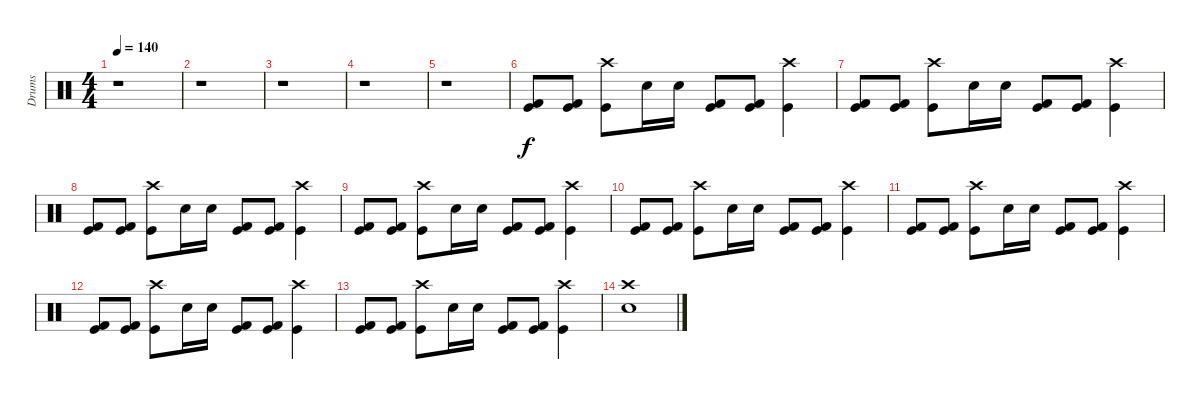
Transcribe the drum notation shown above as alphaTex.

\track ("Drums" "Drums") {instrument percussion}
\staff {score}
\articulation defaults
\ts (4 4)
\tempo 140
\clef neutral
\ks c
r.1{dy f} |
r.1 |
r.1 |
r.1 |
r.1 |
("Kick (hit) 2" "Kick (hit)").8 ("Kick (hit) 2" "Kick (hit)").8 ("Crash high (hit)" "Kick (hit)").8 "Snare (hit) 2".16 "Snare (hit) 2".16 ("Kick (hit) 2" "Kick (hit)").8 ("Kick (hit) 2" "Kick (hit)").8 ("Crash high (hit)" "Kick (hit)").4 |
("Kick (hit) 2" "Kick (hit)").8 ("Kick (hit) 2" "Kick (hit)").8 ("Crash high (hit)" "Kick (hit)").8 "Snare (hit) 2".16 "Snare (hit) 2".16 ("Kick (hit) 2" "Kick (hit)").8 ("Kick (hit) 2" "Kick (hit)").8 ("Crash high (hit)" "Kick (hit)").4 |
("Kick (hit) 2" "Kick (hit)").8 ("Kick (hit) 2" "Kick (hit)").8 ("Crash high (hit)" "Kick (hit)").8 "Snare (hit) 2".16 "Snare (hit) 2".16 ("Kick (hit) 2" "Kick (hit)").8 ("Kick (hit) 2" "Kick (hit)").8 ("Crash high (hit)" "Kick (hit)").4 |
("Kick (hit) 2" "Kick (hit)").8 ("Kick (hit) 2" "Kick (hit)").8 ("Crash high (hit)" "Kick (hit)").8 "Snare (hit) 2".16 "Snare (hit) 2".16 ("Kick (hit) 2" "Kick (hit)").8 ("Kick (hit) 2" "Kick (hit)").8 ("Crash high (hit)" "Kick (hit)").4 |
("Kick (hit) 2" "Kick (hit)").8 ("Kick (hit) 2" "Kick (hit)").8 ("Crash high (hit)" "Kick (hit)").8 "Snare (hit) 2".16 "Snare (hit) 2".16 ("Kick (hit) 2" "Kick (hit)").8 ("Kick (hit) 2" "Kick (hit)").8 ("Crash high (hit)" "Kick (hit)").4 |
("Kick (hit) 2" "Kick (hit)").8 ("Kick (hit) 2" "Kick (hit)").8 ("Crash high (hit)" "Kick (hit)").8 "Snare (hit) 2".16 "Snare (hit) 2".16 ("Kick (hit) 2" "Kick (hit)").8 ("Kick (hit) 2" "Kick (hit)").8 ("Crash high (hit)" "Kick (hit)").4 |
("Kick (hit) 2" "Kick (hit)").8 ("Kick (hit) 2" "Kick (hit)").8 ("Crash high (hit)" "Kick (hit)").8 "Snare (hit) 2".16 "Snare (hit) 2".16 ("Kick (hit) 2" "Kick (hit)").8 ("Kick (hit) 2" "Kick (hit)").8 ("Crash high (hit)" "Kick (hit)").4 |
("Kick (hit) 2" "Kick (hit)").8 ("Kick (hit) 2" "Kick (hit)").8 ("Crash high (hit)" "Kick (hit)").8 "Snare (hit) 2".16 "Snare (hit) 2".16 ("Kick (hit) 2" "Kick (hit)").8 ("Kick (hit) 2" "Kick (hit)").8 ("Crash high (hit)" "Kick (hit)").4 |
("Crash high (hit)" "Snare (hit) 2").1
